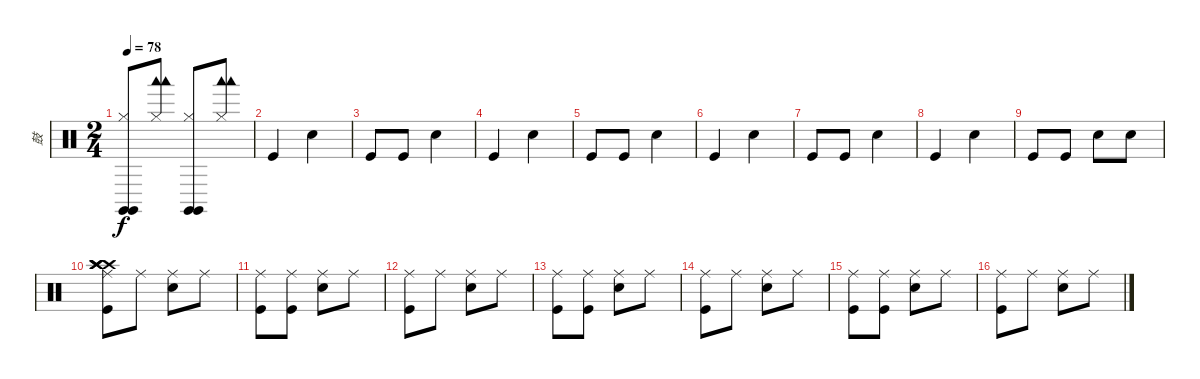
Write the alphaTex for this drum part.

\track ("鼓" "鼓") {instrument percussion}
\staff {score}
\articulation defaults
\ts (2 4)
\tempo 78
\clef neutral
\ks c
("Hi-Hat (closed)" "Claves (hit)" "Claves (hit)").8{dy f} ("Hi-Hat (closed)" "Woodblock low (hit)" "Woodblock low (hit)").8 ("Hi-Hat (closed)" "Claves (hit)" "Claves (hit)").8 ("Hi-Hat (closed)" "Woodblock low (hit)" "Woodblock low (hit)").8 |
"Kick (hit)".4 "Metronome (bell)".4 |
"Kick (hit)".8 "Kick (hit)".8 "Metronome (bell)".4 |
"Kick (hit)".4 "Metronome (bell)".4 |
"Kick (hit)".8 "Kick (hit)".8 "Metronome (bell)".4 |
"Kick (hit)".4 "Metronome (bell)".4 |
"Kick (hit)".8 "Kick (hit)".8 "Metronome (bell)".4 |
"Kick (hit)".4 "Metronome (bell)".4 |
"Kick (hit)".8 "Kick (hit)".8 "Metronome (bell)".8 "Metronome (bell)".8 |
("Ride (middle)" "Kick (hit)" "Crash high (hit)" "Crash high (hit)" "Crash high (hit)" "Crash high (hit)").8 "Ride (middle)".8 ("Ride (middle)" "Metronome (bell)").8 "Ride (middle)".8 |
("Ride (middle)" "Kick (hit)").8 ("Ride (middle)" "Kick (hit)").8 ("Ride (middle)" "Metronome (bell)").8 "Ride (middle)".8 |
("Ride (middle)" "Kick (hit)").8 "Ride (middle)".8 ("Ride (middle)" "Metronome (bell)").8 "Ride (middle)".8 |
("Ride (middle)" "Kick (hit)").8 ("Ride (middle)" "Kick (hit)").8 ("Ride (middle)" "Metronome (bell)").8 "Ride (middle)".8 |
("Ride (middle)" "Kick (hit)").8 "Ride (middle)".8 ("Ride (middle)" "Metronome (bell)").8 "Ride (middle)".8 |
("Ride (middle)" "Kick (hit)").8 ("Ride (middle)" "Kick (hit)").8 ("Ride (middle)" "Metronome (bell)").8 "Ride (middle)".8 |
("Ride (middle)" "Kick (hit)").8 "Ride (middle)".8 ("Ride (middle)" "Metronome (bell)").8 "Ride (middle)".8
